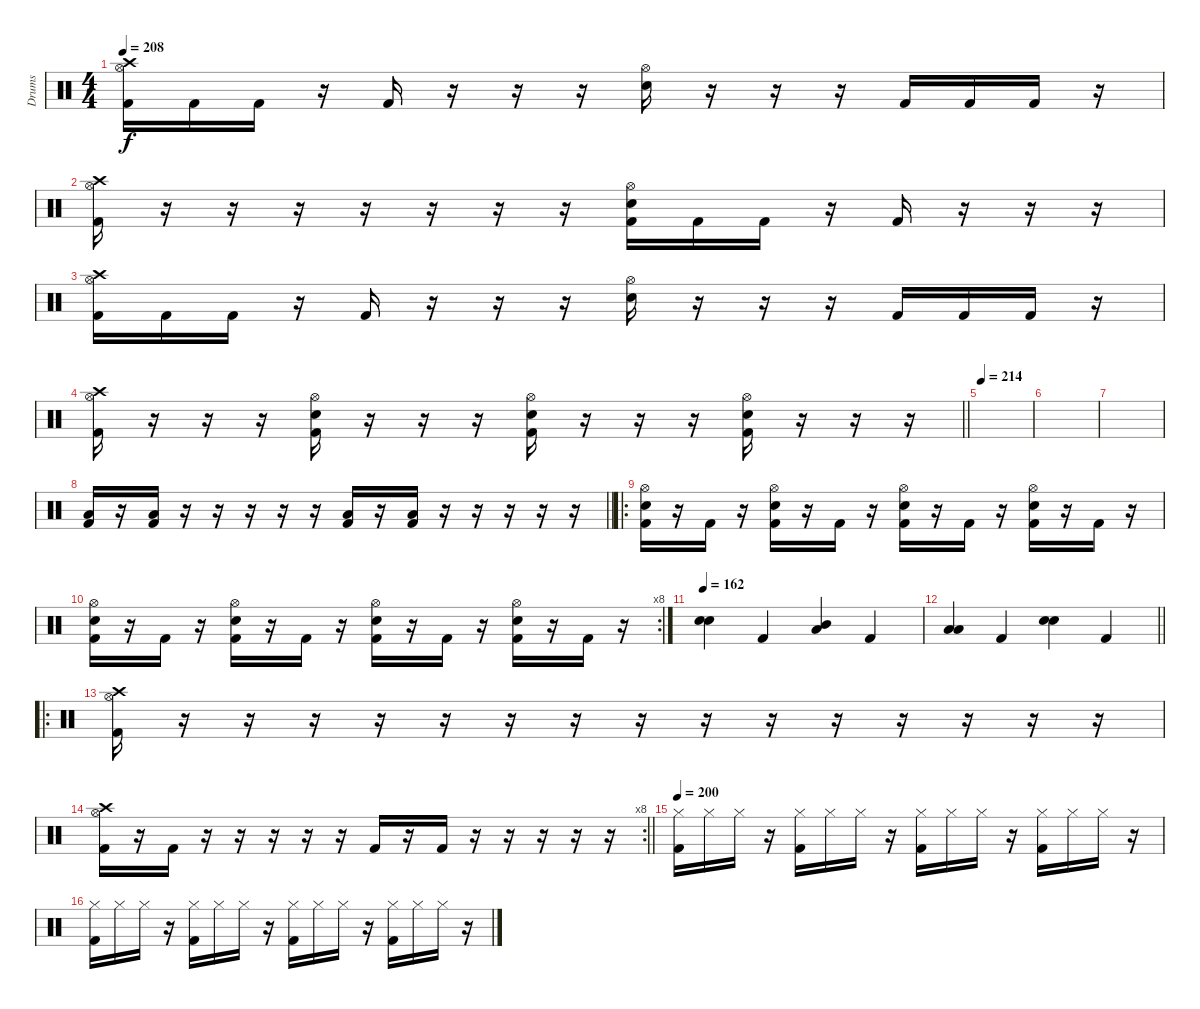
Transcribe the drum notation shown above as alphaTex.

\track ("Drums" "Drums") {instrument percussion}
\staff {score}
\articulation defaults
\ts (4 4)
\tempo 208
\clef neutral
\ks c
("Crash high (hit)" "Hi-Hat (open)" "Kick (hit) 2").16{dy f} "Kick (hit) 2".16 "Kick (hit) 2".16 r.16 "Kick (hit) 2".16 r.16 r.16 r.16 ("Hi-Hat (open)" "Snare (hit) 2").16 r.16 r.16 r.16 "Kick (hit) 2".16 "Kick (hit) 2".16 "Kick (hit) 2".16 r.16 |
("Crash high (hit)" "Hi-Hat (open)" "Kick (hit) 2").16 r.16 r.16 r.16 r.16 r.16 r.16 r.16 ("Hi-Hat (open)" "Snare (hit) 2" "Kick (hit) 2").16 "Kick (hit) 2".16 "Kick (hit) 2".16 r.16 "Kick (hit) 2".16 r.16 r.16 r.16 |
("Crash high (hit)" "Hi-Hat (open)" "Kick (hit) 2").16 "Kick (hit) 2".16 "Kick (hit) 2".16 r.16 "Kick (hit) 2".16 r.16 r.16 r.16 ("Hi-Hat (open)" "Snare (hit) 2").16 r.16 r.16 r.16 "Kick (hit) 2".16 "Kick (hit) 2".16 "Kick (hit) 2".16 r.16 |
\barLineRight lightlight
("Crash high (hit)" "Hi-Hat (open)" "Kick (hit) 2").16 r.16 r.16 r.16 ("Hi-Hat (open)" "Snare (hit) 2" "Kick (hit) 2").16 r.16 r.16 r.16 ("Hi-Hat (open)" "Snare (hit) 2" "Kick (hit) 2").16 r.16 r.16 r.16 ("Hi-Hat (open)" "Snare (hit) 2" "Kick (hit) 2").16 r.16 r.16 r.16 |
\tempo 214
|
|
|
\barLineRight lightlight
("Low Tom (hit)" "Kick (hit) 2").16 r.16 ("Low Tom (hit)" "Kick (hit) 2").16 r.16 r.16 r.16 r.16 r.16 ("Low Floor Tom (hit)" "Kick (hit) 2").16 r.16 ("Low Floor Tom (hit)" "Kick (hit) 2").16 r.16 r.16 r.16 r.16 r.16 |
\ro
("Hi-Hat (open)" "Snare (hit) 2" "Kick (hit) 2").16 r.16 "Kick (hit) 2".16 r.16 ("Hi-Hat (open)" "Snare (hit) 2" "Kick (hit) 2").16 r.16 "Kick (hit) 2".16 r.16 ("Hi-Hat (open)" "Snare (hit) 2" "Kick (hit) 2").16 r.16 "Kick (hit) 2".16 r.16 ("Hi-Hat (open)" "Snare (hit) 2" "Kick (hit) 2").16 r.16 "Kick (hit) 2".16 r.16 |
\rc 8
("Hi-Hat (open)" "Snare (hit) 2" "Kick (hit) 2").16 r.16 "Kick (hit) 2".16 r.16 ("Hi-Hat (open)" "Snare (hit) 2" "Kick (hit) 2").16 r.16 "Kick (hit) 2".16 r.16 ("Hi-Hat (open)" "Snare (hit) 2" "Kick (hit) 2").16 r.16 "Kick (hit) 2".16 r.16 ("Hi-Hat (open)" "Snare (hit) 2" "Kick (hit) 2").16 r.16 "Kick (hit) 2".16 r.16 |
\tempo 162
("Snare (hit) 2" "Snare (hit) 2").4{bd 240} "Kick (hit) 2".4 ("Mid Tom (hit)" "Low Tom (hit)").4 "Kick (hit) 2".4 |
\barLineRight lightlight
("Low Tom (hit)" "Low Floor Tom (hit)").4 "Kick (hit) 2".4 ("Snare (hit) 2" "Snare (hit) 2").4 "Kick (hit) 2".4 |
\ro
("Crash high (hit)" "Hi-Hat (open)" "Kick (hit) 2").16 r.16 r.16 r.16 r.16 r.16 r.16 r.16 r.16 r.16 r.16 r.16 r.16 r.16 r.16 r.16 |
\rc 8
\barLineRight lightlight
("Crash high (hit)" "Hi-Hat (open)" "Kick (hit) 2").16 r.16 "Kick (hit) 2".16 r.16 r.16 r.16 r.16 r.16 "Kick (hit) 2".16 r.16 "Kick (hit) 2".16 r.16 r.16 r.16 r.16 r.16 |
\tempo 200
("Hi-Hat (closed)" "Kick (hit) 2").16 "Hi-Hat (closed)".16 "Hi-Hat (closed)".16 r.16 ("Hi-Hat (closed)" "Kick (hit) 2").16 "Hi-Hat (closed)".16 "Hi-Hat (closed)".16 r.16 ("Hi-Hat (closed)" "Kick (hit) 2").16 "Hi-Hat (closed)".16 "Hi-Hat (closed)".16 r.16 ("Hi-Hat (closed)" "Kick (hit) 2").16 "Hi-Hat (closed)".16 "Hi-Hat (closed)".16 r.16 |
("Hi-Hat (closed)" "Kick (hit) 2").16 "Hi-Hat (closed)".16 "Hi-Hat (closed)".16 r.16 ("Hi-Hat (closed)" "Kick (hit) 2").16 "Hi-Hat (closed)".16 "Hi-Hat (closed)".16 r.16 ("Hi-Hat (closed)" "Kick (hit) 2").16 "Hi-Hat (closed)".16 "Hi-Hat (closed)".16 r.16 ("Hi-Hat (closed)" "Kick (hit) 2").16 "Hi-Hat (closed)".16 "Hi-Hat (closed)".16 r.16
